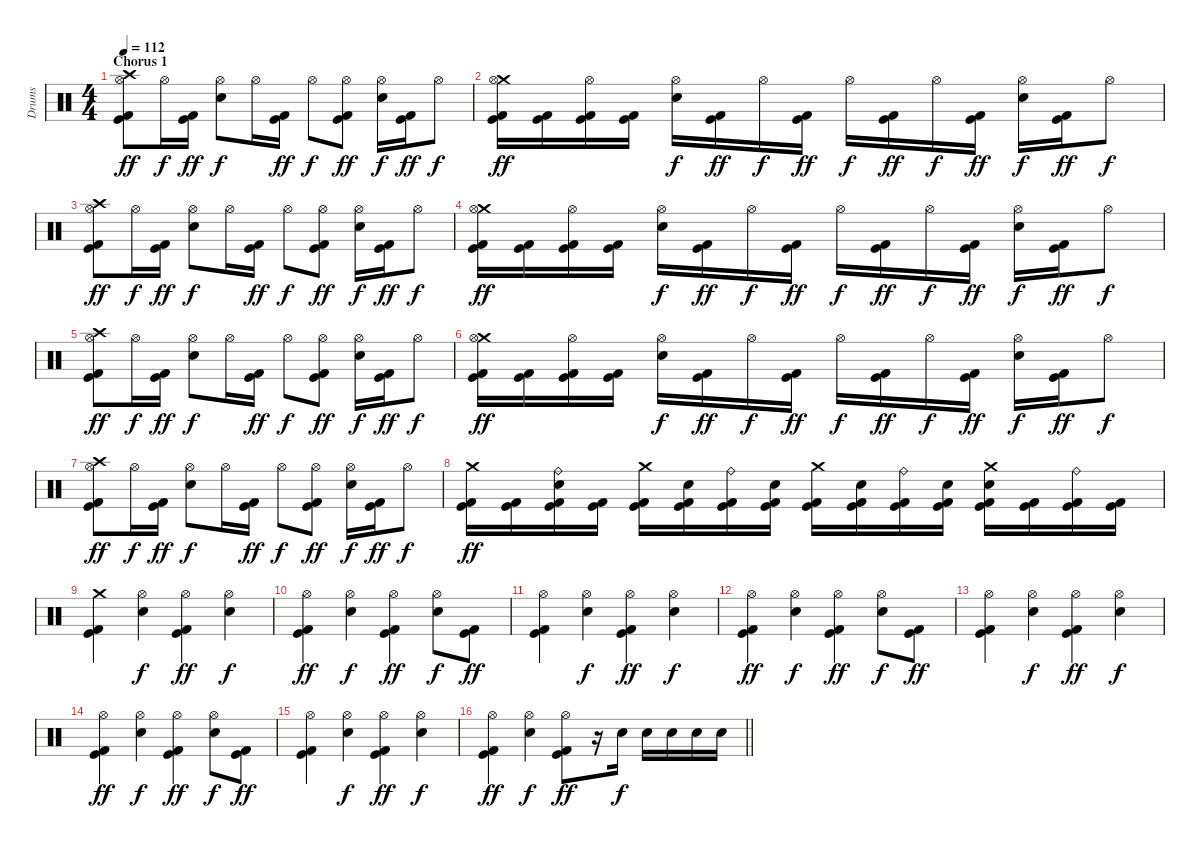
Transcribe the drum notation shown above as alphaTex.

\track ("Drums" "Drums") {instrument percussion}
\staff {score}
\articulation defaults
\ts (4 4)
\section ("" "Chorus 1")
\tempo 112
\clef neutral
\ks c
("Crash high (hit)" "Hi-Hat (open)" "Kick (hit)" "Kick (hit) 2").8{dy ff} "Hi-Hat (open)".16{dy f} ("Kick (hit)" "Kick (hit) 2").16{dy ff} ("Hi-Hat (open)" "Snare (hit) 2").8{dy f} "Hi-Hat (open)".16 ("Kick (hit)" "Kick (hit) 2").16{dy ff} "Hi-Hat (open)".8{dy f} ("Hi-Hat (open)" "Kick (hit)" "Kick (hit) 2").8{dy ff} ("Hi-Hat (open)" "Snare (hit) 2").16{dy f} ("Kick (hit)" "Kick (hit) 2").16{dy ff} "Hi-Hat (open)".8{dy f} |
("Crash medium (hit)" "Hi-Hat (open)" "Kick (hit)" "Kick (hit) 2").16{dy ff} ("Kick (hit)" "Kick (hit) 2").16 ("Hi-Hat (open)" "Kick (hit)" "Kick (hit) 2").16 ("Kick (hit)" "Kick (hit) 2").16 ("Hi-Hat (open)" "Snare (hit) 2").16{dy f} ("Kick (hit)" "Kick (hit) 2").16{dy ff} "Hi-Hat (open)".16{dy f} ("Kick (hit)" "Kick (hit) 2").16{dy ff} "Hi-Hat (open)".16{dy f} ("Kick (hit)" "Kick (hit) 2").16{dy ff} "Hi-Hat (open)".16{dy f} ("Kick (hit)" "Kick (hit) 2").16{dy ff} ("Hi-Hat (open)" "Snare (hit) 2").16{dy f} ("Kick (hit)" "Kick (hit) 2").16{dy ff} "Hi-Hat (open)".8{dy f} |
("Crash high (hit)" "Hi-Hat (open)" "Kick (hit)" "Kick (hit) 2").8{dy ff} "Hi-Hat (open)".16{dy f} ("Kick (hit)" "Kick (hit) 2").16{dy ff} ("Hi-Hat (open)" "Snare (hit) 2").8{dy f} "Hi-Hat (open)".16 ("Kick (hit)" "Kick (hit) 2").16{dy ff} "Hi-Hat (open)".8{dy f} ("Hi-Hat (open)" "Kick (hit)" "Kick (hit) 2").8{dy ff} ("Hi-Hat (open)" "Snare (hit) 2").16{dy f} ("Kick (hit)" "Kick (hit) 2").16{dy ff} "Hi-Hat (open)".8{dy f} |
("Crash medium (hit)" "Hi-Hat (open)" "Kick (hit)" "Kick (hit) 2").16{dy ff} ("Kick (hit)" "Kick (hit) 2").16 ("Hi-Hat (open)" "Kick (hit)" "Kick (hit) 2").16 ("Kick (hit)" "Kick (hit) 2").16 ("Hi-Hat (open)" "Snare (hit) 2").16{dy f} ("Kick (hit)" "Kick (hit) 2").16{dy ff} "Hi-Hat (open)".16{dy f} ("Kick (hit)" "Kick (hit) 2").16{dy ff} "Hi-Hat (open)".16{dy f} ("Kick (hit)" "Kick (hit) 2").16{dy ff} "Hi-Hat (open)".16{dy f} ("Kick (hit)" "Kick (hit) 2").16{dy ff} ("Hi-Hat (open)" "Snare (hit) 2").16{dy f} ("Kick (hit)" "Kick (hit) 2").16{dy ff} "Hi-Hat (open)".8{dy f} |
("Crash high (hit)" "Hi-Hat (open)" "Kick (hit)" "Kick (hit) 2").8{dy ff} "Hi-Hat (open)".16{dy f} ("Kick (hit)" "Kick (hit) 2").16{dy ff} ("Hi-Hat (open)" "Snare (hit) 2").8{dy f} "Hi-Hat (open)".16 ("Kick (hit)" "Kick (hit) 2").16{dy ff} "Hi-Hat (open)".8{dy f} ("Hi-Hat (open)" "Kick (hit)" "Kick (hit) 2").8{dy ff} ("Hi-Hat (open)" "Snare (hit) 2").16{dy f} ("Kick (hit)" "Kick (hit) 2").16{dy ff} "Hi-Hat (open)".8{dy f} |
("Crash medium (hit)" "Hi-Hat (open)" "Kick (hit)" "Kick (hit) 2").16{dy ff} ("Kick (hit)" "Kick (hit) 2").16 ("Hi-Hat (open)" "Kick (hit)" "Kick (hit) 2").16 ("Kick (hit)" "Kick (hit) 2").16 ("Hi-Hat (open)" "Snare (hit) 2").16{dy f} ("Kick (hit)" "Kick (hit) 2").16{dy ff} "Hi-Hat (open)".16{dy f} ("Kick (hit)" "Kick (hit) 2").16{dy ff} "Hi-Hat (open)".16{dy f} ("Kick (hit)" "Kick (hit) 2").16{dy ff} "Hi-Hat (open)".16{dy f} ("Kick (hit)" "Kick (hit) 2").16{dy ff} ("Hi-Hat (open)" "Snare (hit) 2").16{dy f} ("Kick (hit)" "Kick (hit) 2").16{dy ff} "Hi-Hat (open)".8{dy f} |
("Crash high (hit)" "Hi-Hat (open)" "Kick (hit)" "Kick (hit) 2").8{dy ff} "Hi-Hat (open)".16{dy f} ("Kick (hit)" "Kick (hit) 2").16{dy ff} ("Hi-Hat (open)" "Snare (hit) 2").8{dy f} "Hi-Hat (open)".16 ("Kick (hit)" "Kick (hit) 2").16{dy ff} "Hi-Hat (open)".8{dy f} ("Hi-Hat (open)" "Kick (hit)" "Kick (hit) 2").8{dy ff} ("Hi-Hat (open)" "Snare (hit) 2").16{dy f} ("Kick (hit)" "Kick (hit) 2").16{dy ff} "Hi-Hat (open)".8{dy f} |
("Crash medium (hit)" "Kick (hit)" "Kick (hit) 2").16{dy ff} ("Kick (hit)" "Kick (hit) 2").16 ("Ride (bell)" "Snare (hit) 2" "Kick (hit)" "Kick (hit) 2").16 ("Kick (hit)" "Kick (hit) 2").16 ("Crash medium (hit)" "Kick (hit)" "Kick (hit) 2").16 ("Snare (hit) 2" "Kick (hit)" "Kick (hit) 2").16 ("Ride (bell)" "Kick (hit)" "Kick (hit) 2").16 ("Snare (hit) 2" "Kick (hit)" "Kick (hit) 2").16 ("Crash medium (hit)" "Kick (hit)" "Kick (hit) 2").16 ("Snare (hit) 2" "Kick (hit)" "Kick (hit) 2").16 ("Ride (bell)" "Kick (hit)" "Kick (hit) 2").16 ("Snare (hit) 2" "Kick (hit)" "Kick (hit) 2").16 ("Crash medium (hit)" "Snare (hit) 2" "Kick (hit)" "Kick (hit) 2").16 ("Kick (hit)" "Kick (hit) 2").16 ("Ride (bell)" "Kick (hit)" "Kick (hit) 2").16 ("Kick (hit)" "Kick (hit) 2").16 |
("Crash medium (hit)" "Kick (hit)" "Kick (hit) 2").4 ("Hi-Hat (open)" "Snare (hit) 2").4{dy f} ("Hi-Hat (open)" "Kick (hit)" "Kick (hit) 2").4{dy ff} ("Hi-Hat (open)" "Snare (hit) 2").4{dy f} |
("Hi-Hat (open)" "Kick (hit)" "Kick (hit) 2").4{dy ff} ("Hi-Hat (open)" "Snare (hit) 2").4{dy f} ("Hi-Hat (open)" "Kick (hit)" "Kick (hit) 2").4{dy ff} ("Hi-Hat (open)" "Snare (hit) 2").8{dy f} ("Kick (hit)" "Kick (hit) 2").8{dy ff} |
("Hi-Hat (open)" "Kick (hit)" "Kick (hit) 2").4 ("Hi-Hat (open)" "Snare (hit) 2").4{dy f} ("Hi-Hat (open)" "Kick (hit)" "Kick (hit) 2").4{dy ff} ("Hi-Hat (open)" "Snare (hit) 2").4{dy f} |
("Hi-Hat (open)" "Kick (hit)" "Kick (hit) 2").4{dy ff} ("Hi-Hat (open)" "Snare (hit) 2").4{dy f} ("Hi-Hat (open)" "Kick (hit)" "Kick (hit) 2").4{dy ff} ("Hi-Hat (open)" "Snare (hit) 2").8{dy f} ("Kick (hit)" "Kick (hit) 2").8{dy ff} |
("Hi-Hat (open)" "Kick (hit)" "Kick (hit) 2").4 ("Hi-Hat (open)" "Snare (hit) 2").4{dy f} ("Hi-Hat (open)" "Kick (hit)" "Kick (hit) 2").4{dy ff} ("Hi-Hat (open)" "Snare (hit) 2").4{dy f} |
("Hi-Hat (open)" "Kick (hit)" "Kick (hit) 2").4{dy ff} ("Hi-Hat (open)" "Snare (hit) 2").4{dy f} ("Hi-Hat (open)" "Kick (hit)" "Kick (hit) 2").4{dy ff} ("Hi-Hat (open)" "Snare (hit) 2").8{dy f} ("Kick (hit)" "Kick (hit) 2").8{dy ff} |
("Hi-Hat (open)" "Kick (hit)" "Kick (hit) 2").4 ("Hi-Hat (open)" "Snare (hit) 2").4{dy f} ("Hi-Hat (open)" "Kick (hit)" "Kick (hit) 2").4{dy ff} ("Hi-Hat (open)" "Snare (hit) 2").4{dy f} |
\barLineRight lightlight
("Hi-Hat (open)" "Kick (hit)" "Kick (hit) 2").4{dy ff} ("Hi-Hat (open)" "Snare (hit) 2").4{dy f} ("Hi-Hat (open)" "Kick (hit)" "Kick (hit) 2").8{dy ff} r.16 "Snare (hit) 2".16{dy f} "Snare (hit) 2".16 "Snare (hit) 2".16 "Snare (hit) 2".16 "Snare (hit) 2".16
